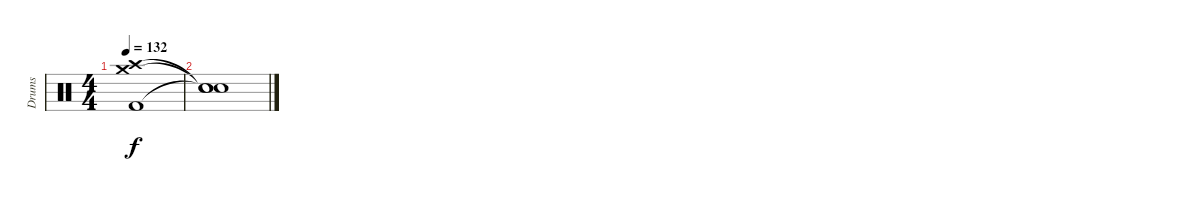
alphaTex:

\track ("Drums" "Drums") {instrument percussion}
\staff {score}
\articulation defaults
\ts (4 4)
\tempo 132
\clef neutral
\ks c
("Crash high (hit)" "Crash medium (hit)" "Kick (hit) 2").1{dy f} |
("Snare (hit)"{t} "Snare (hit)"{t} "Snare (hit)"{t}).1
